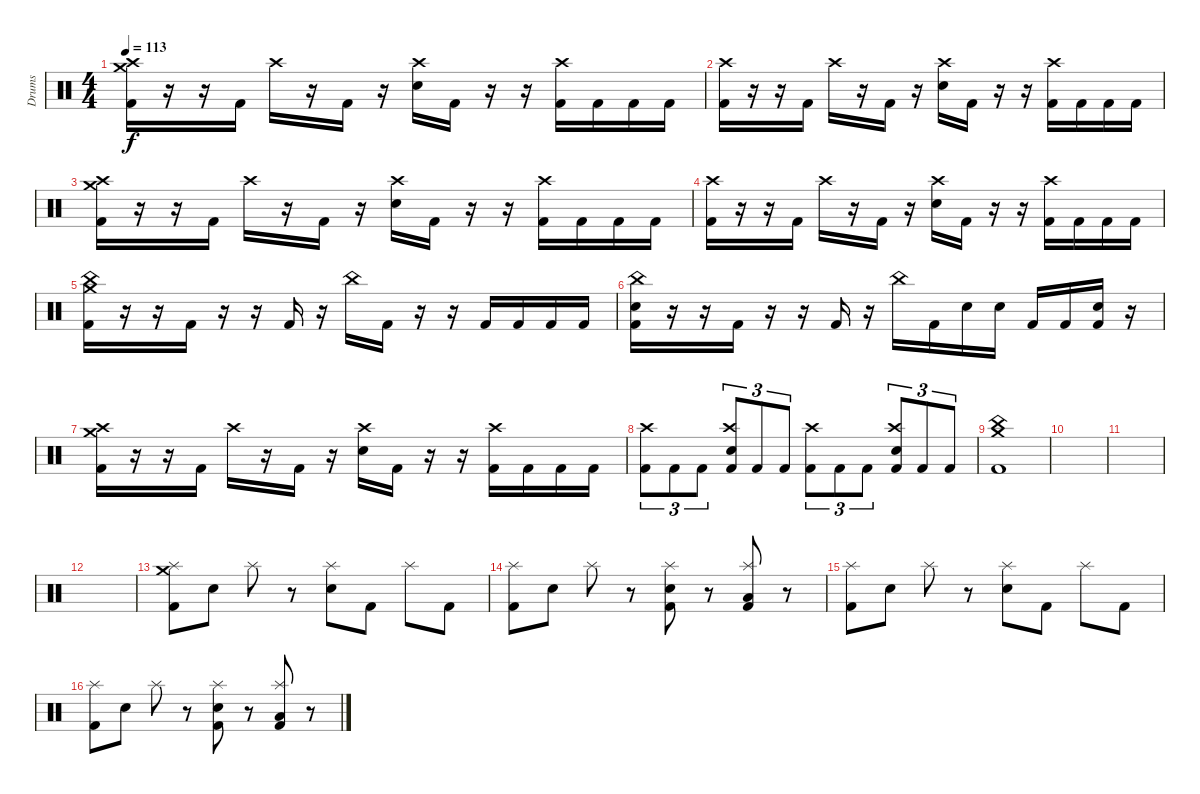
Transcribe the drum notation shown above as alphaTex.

\track ("Drums" "Drums") {instrument percussion}
\staff {score}
\articulation defaults
\ts (4 4)
\tempo 113
\clef neutral
\ks c
("Kick (hit) 2" "Crash high (hit)" "Crash medium (hit)").16{dy f} r.16 r.16 "Kick (hit) 2".16 "Crash high (hit)".16 r.16 "Kick (hit) 2".16 r.16 ("Snare (hit) 2" "Crash high (hit)").16 "Kick (hit) 2".16 r.16 r.16 ("Kick (hit) 2" "Crash high (hit)").16 "Kick (hit) 2".16 "Kick (hit) 2".16 "Kick (hit) 2".16 |
("Kick (hit) 2" "Crash high (hit)").16 r.16 r.16 "Kick (hit) 2".16 "Crash high (hit)".16 r.16 "Kick (hit) 2".16 r.16 ("Snare (hit) 2" "Crash high (hit)").16 "Kick (hit) 2".16 r.16 r.16 ("Kick (hit) 2" "Crash high (hit)").16 "Kick (hit) 2".16 "Kick (hit) 2".16 "Kick (hit) 2".16 |
("Kick (hit) 2" "Crash high (hit)" "Crash medium (hit)").16 r.16 r.16 "Kick (hit) 2".16 "Crash high (hit)".16 r.16 "Kick (hit) 2".16 r.16 ("Snare (hit) 2" "Crash high (hit)").16 "Kick (hit) 2".16 r.16 r.16 ("Kick (hit) 2" "Crash high (hit)").16 "Kick (hit) 2".16 "Kick (hit) 2".16 "Kick (hit) 2".16 |
("Kick (hit) 2" "Crash high (hit)").16 r.16 r.16 "Kick (hit) 2".16 "Crash high (hit)".16 r.16 "Kick (hit) 2".16 r.16 ("Snare (hit) 2" "Crash high (hit)").16 "Kick (hit) 2".16 r.16 r.16 ("Kick (hit) 2" "Crash high (hit)").16 "Kick (hit) 2".16 "Kick (hit) 2".16 "Kick (hit) 2".16 |
("Kick (hit) 2" "China (hit)" "Crash medium (hit)").16 r.16 r.16 "Kick (hit) 2".16 r.16 r.16 "Kick (hit) 2".16 r.16 "China (hit)".16 "Kick (hit) 2".16 r.16 r.16 "Kick (hit) 2".16 "Kick (hit) 2".16 "Kick (hit) 2".16 "Kick (hit) 2".16 |
("Kick (hit) 2" "Snare (hit) 2" "China (hit)").16 r.16 r.16 "Kick (hit) 2".16 r.16 r.16 "Kick (hit) 2".16 r.16 "China (hit)".16 "Kick (hit) 2".16 "Snare (hit) 2".16 "Snare (hit) 2".16 "Kick (hit) 2".16 "Kick (hit) 2".16 ("Kick (hit) 2" "Snare (hit) 2").16 r.16 |
("Kick (hit) 2" "Crash high (hit)" "Crash medium (hit)").16 r.16 r.16 "Kick (hit) 2".16 "Crash high (hit)".16 r.16 "Kick (hit) 2".16 r.16 ("Snare (hit) 2" "Crash high (hit)").16 "Kick (hit) 2".16 r.16 r.16 ("Kick (hit) 2" "Crash high (hit)").16 "Kick (hit) 2".16 "Kick (hit) 2".16 "Kick (hit) 2".16 |
("Kick (hit) 2" "Crash high (hit)").8{tu (3 2)} "Kick (hit) 2".8{tu (3 2)} "Kick (hit) 2".8{tu (3 2)} ("Kick (hit) 2" "Electric Snare (hit)" "Crash high (hit)").8{tu (3 2)} "Kick (hit) 2".8{tu (3 2)} "Kick (hit) 2".8{tu (3 2)} ("Kick (hit) 2" "Crash high (hit)").8{tu (3 2)} "Kick (hit) 2".8{tu (3 2)} "Kick (hit) 2".8{tu (3 2)} ("Kick (hit) 2" "Electric Snare (hit)" "Crash high (hit)").8{tu (3 2)} "Kick (hit) 2".8{tu (3 2)} "Kick (hit) 2".8{tu (3 2)} |
("Kick (hit) 2" "China (hit)" "Crash medium (hit)").1 |
|
|
|
("Kick (hit) 2" "Splash (hit)" "Crash medium (hit)").8 "Electric Snare (hit)".8 "Splash (hit)".8 r.8 ("Electric Snare (hit)" "Splash (hit)").8 "Kick (hit) 2".8 "Splash (hit)".8 "Kick (hit) 2".8 |
("Kick (hit) 2" "Splash (hit)").8 "Electric Snare (hit)".8 "Splash (hit)".8 r.8 ("Kick (hit) 2" "Electric Snare (hit)" "Splash (hit)").8 r.8 ("Kick (hit) 2" "Low Floor Tom (hit)" "Splash (hit)").8 r.8 |
("Kick (hit) 2" "Splash (hit)").8 "Electric Snare (hit)".8 "Splash (hit)".8 r.8 ("Electric Snare (hit)" "Splash (hit)").8 "Kick (hit) 2".8 "Splash (hit)".8 "Kick (hit) 2".8 |
("Kick (hit) 2" "Splash (hit)").8 "Electric Snare (hit)".8 "Splash (hit)".8 r.8 ("Kick (hit) 2" "Electric Snare (hit)" "Splash (hit)").8 r.8 ("Kick (hit) 2" "Low Floor Tom (hit)" "Splash (hit)").8 r.8
